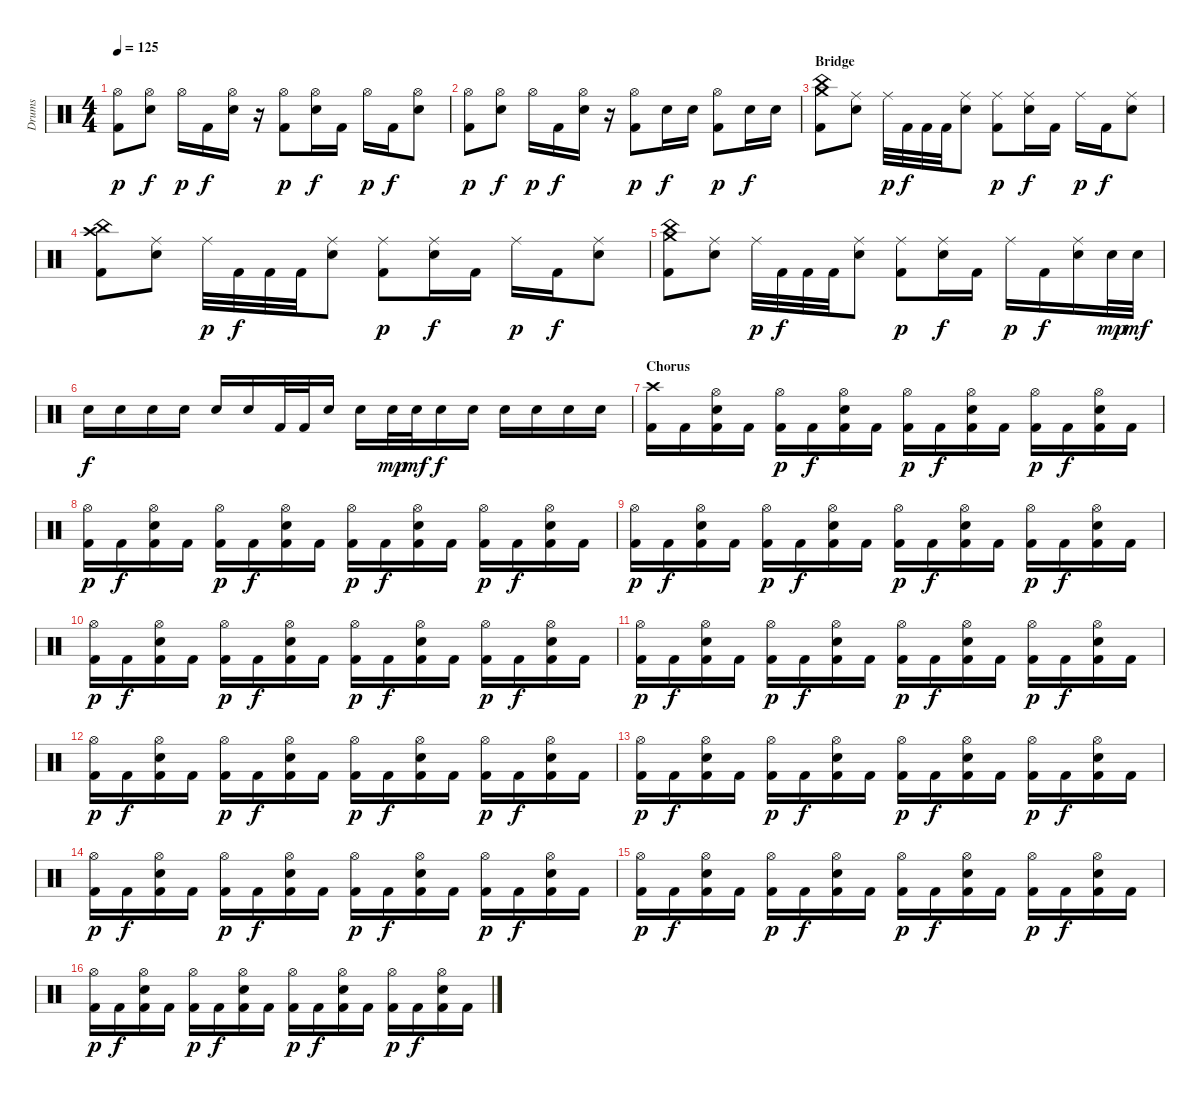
\track ("Drums" "Drums") {instrument percussion}
\staff {score}
\articulation defaults
\ts (4 4)
\tempo 125
\clef neutral
\ks c
("Hi-Hat (open)" "Kick (hit) 2").8{dy p} ("Hi-Hat (open)" "Snare (hit) 2").8{dy f} "Hi-Hat (open)".16{dy p} "Kick (hit) 2".16{dy f} ("Hi-Hat (open)" "Snare (hit) 2").16 r.16 ("Hi-Hat (open)" "Kick (hit) 2").8{dy p} ("Hi-Hat (open)" "Snare (hit) 2").16{dy f} "Kick (hit) 2".16 "Hi-Hat (open)".16{dy p} "Kick (hit) 2".16{dy f} ("Hi-Hat (open)" "Snare (hit) 2").8 |
("Hi-Hat (open)" "Kick (hit) 2").8{dy p} ("Hi-Hat (open)" "Snare (hit) 2").8{dy f} "Hi-Hat (open)".16{dy p} "Kick (hit) 2".16{dy f} ("Hi-Hat (open)" "Snare (hit) 2").16 r.16 ("Hi-Hat (open)" "Kick (hit) 2").8{dy p} "Snare (hit) 2".16{dy f} "Snare (hit) 2".16 ("Hi-Hat (open)" "Kick (hit) 2").8{dy p} "Snare (hit) 2".16{dy f} "Snare (hit) 2".16 |
\section ("" "Bridge")
("Crash medium (hit)" "China (hit)" "Kick (hit) 2").8 ("Ride (middle)" "Snare (hit) 2").8 "Ride (middle)".32{dy p} "Kick (hit) 2".32{dy f} "Kick (hit) 2".32 "Kick (hit) 2".32 ("Ride (middle)" "Snare (hit) 2").8 ("Ride (middle)" "Kick (hit) 2").8{dy p} ("Ride (middle)" "Snare (hit) 2").16{dy f} "Kick (hit) 2".16 "Ride (middle)".16{dy p} "Kick (hit) 2".16{dy f} ("Ride (middle)" "Snare (hit) 2").8 |
("Crash high (hit)" "China (hit)" "Kick (hit) 2").8 ("Ride (middle)" "Snare (hit) 2").8 "Ride (middle)".32{dy p} "Kick (hit) 2".32{dy f} "Kick (hit) 2".32 "Kick (hit) 2".32 ("Ride (middle)" "Snare (hit) 2").8 ("Ride (middle)" "Kick (hit) 2").8{dy p} ("Ride (middle)" "Snare (hit) 2").16{dy f} "Kick (hit) 2".16 "Ride (middle)".16{dy p} "Kick (hit) 2".16{dy f} ("Ride (middle)" "Snare (hit) 2").8 |
("Crash medium (hit)" "China (hit)" "Kick (hit) 2").8 ("Ride (middle)" "Snare (hit) 2").8 "Ride (middle)".32{dy p} "Kick (hit) 2".32{dy f} "Kick (hit) 2".32 "Kick (hit) 2".32 ("Ride (middle)" "Snare (hit) 2").8 ("Ride (middle)" "Kick (hit) 2").8{dy p} ("Ride (middle)" "Snare (hit) 2").16{dy f} "Kick (hit) 2".16 "Ride (middle)".16{dy p} "Kick (hit) 2".16{dy f} ("Ride (middle)" "Snare (hit) 2").16 "Snare (hit) 2".32{dy mp} "Snare (hit) 2".32{dy mf} |
"Snare (hit) 2".16{dy f} "Snare (hit) 2".16 "Snare (hit) 2".16 "Snare (hit) 2".16 "Snare (hit) 2".16 "Snare (hit) 2".16 "Kick (hit) 2".32 "Kick (hit) 2".32 "Snare (hit) 2".16 "Snare (hit) 2".16 "Snare (hit) 2".32{dy mp} "Snare (hit) 2".32{dy mf} "Snare (hit) 2".16{dy f} "Snare (hit) 2".16 "Snare (hit) 2".16 "Snare (hit) 2".16 "Snare (hit) 2".16 "Snare (hit) 2".16 |
\section ("" "Chorus")
("Crash high (hit)" "Kick (hit) 2").16 "Kick (hit) 2".16 ("Hi-Hat (open)" "Snare (hit) 2" "Kick (hit) 2").16 "Kick (hit) 2".16 ("Hi-Hat (open)" "Kick (hit) 2").16{dy p} "Kick (hit) 2".16{dy f} ("Hi-Hat (open)" "Snare (hit) 2" "Kick (hit) 2").16 "Kick (hit) 2".16 ("Hi-Hat (open)" "Kick (hit) 2").16{dy p} "Kick (hit) 2".16{dy f} ("Hi-Hat (open)" "Snare (hit) 2" "Kick (hit) 2").16 "Kick (hit) 2".16 ("Hi-Hat (open)" "Kick (hit) 2").16{dy p} "Kick (hit) 2".16{dy f} ("Hi-Hat (open)" "Snare (hit) 2" "Kick (hit) 2").16 "Kick (hit) 2".16 |
("Hi-Hat (open)" "Kick (hit) 2").16{dy p} "Kick (hit) 2".16{dy f} ("Hi-Hat (open)" "Snare (hit) 2" "Kick (hit) 2").16 "Kick (hit) 2".16 ("Hi-Hat (open)" "Kick (hit) 2").16{dy p} "Kick (hit) 2".16{dy f} ("Hi-Hat (open)" "Snare (hit) 2" "Kick (hit) 2").16 "Kick (hit) 2".16 ("Hi-Hat (open)" "Kick (hit) 2").16{dy p} "Kick (hit) 2".16{dy f} ("Hi-Hat (open)" "Snare (hit) 2" "Kick (hit) 2").16 "Kick (hit) 2".16 ("Hi-Hat (open)" "Kick (hit) 2").16{dy p} "Kick (hit) 2".16{dy f} ("Hi-Hat (open)" "Snare (hit) 2" "Kick (hit) 2").16 "Kick (hit) 2".16 |
("Hi-Hat (open)" "Kick (hit) 2").16{dy p} "Kick (hit) 2".16{dy f} ("Hi-Hat (open)" "Snare (hit) 2" "Kick (hit) 2").16 "Kick (hit) 2".16 ("Hi-Hat (open)" "Kick (hit) 2").16{dy p} "Kick (hit) 2".16{dy f} ("Hi-Hat (open)" "Snare (hit) 2" "Kick (hit) 2").16 "Kick (hit) 2".16 ("Hi-Hat (open)" "Kick (hit) 2").16{dy p} "Kick (hit) 2".16{dy f} ("Hi-Hat (open)" "Snare (hit) 2" "Kick (hit) 2").16 "Kick (hit) 2".16 ("Hi-Hat (open)" "Kick (hit) 2").16{dy p} "Kick (hit) 2".16{dy f} ("Hi-Hat (open)" "Snare (hit) 2" "Kick (hit) 2").16 "Kick (hit) 2".16 |
("Hi-Hat (open)" "Kick (hit) 2").16{dy p} "Kick (hit) 2".16{dy f} ("Hi-Hat (open)" "Snare (hit) 2" "Kick (hit) 2").16 "Kick (hit) 2".16 ("Hi-Hat (open)" "Kick (hit) 2").16{dy p} "Kick (hit) 2".16{dy f} ("Hi-Hat (open)" "Snare (hit) 2" "Kick (hit) 2").16 "Kick (hit) 2".16 ("Hi-Hat (open)" "Kick (hit) 2").16{dy p} "Kick (hit) 2".16{dy f} ("Hi-Hat (open)" "Snare (hit) 2" "Kick (hit) 2").16 "Kick (hit) 2".16 ("Hi-Hat (open)" "Kick (hit) 2").16{dy p} "Kick (hit) 2".16{dy f} ("Hi-Hat (open)" "Snare (hit) 2" "Kick (hit) 2").16 "Kick (hit) 2".16 |
("Hi-Hat (open)" "Kick (hit) 2").16{dy p} "Kick (hit) 2".16{dy f} ("Hi-Hat (open)" "Snare (hit) 2" "Kick (hit) 2").16 "Kick (hit) 2".16 ("Hi-Hat (open)" "Kick (hit) 2").16{dy p} "Kick (hit) 2".16{dy f} ("Hi-Hat (open)" "Snare (hit) 2" "Kick (hit) 2").16 "Kick (hit) 2".16 ("Hi-Hat (open)" "Kick (hit) 2").16{dy p} "Kick (hit) 2".16{dy f} ("Hi-Hat (open)" "Snare (hit) 2" "Kick (hit) 2").16 "Kick (hit) 2".16 ("Hi-Hat (open)" "Kick (hit) 2").16{dy p} "Kick (hit) 2".16{dy f} ("Hi-Hat (open)" "Snare (hit) 2" "Kick (hit) 2").16 "Kick (hit) 2".16 |
("Hi-Hat (open)" "Kick (hit) 2").16{dy p} "Kick (hit) 2".16{dy f} ("Hi-Hat (open)" "Snare (hit) 2" "Kick (hit) 2").16 "Kick (hit) 2".16 ("Hi-Hat (open)" "Kick (hit) 2").16{dy p} "Kick (hit) 2".16{dy f} ("Hi-Hat (open)" "Snare (hit) 2" "Kick (hit) 2").16 "Kick (hit) 2".16 ("Hi-Hat (open)" "Kick (hit) 2").16{dy p} "Kick (hit) 2".16{dy f} ("Hi-Hat (open)" "Snare (hit) 2" "Kick (hit) 2").16 "Kick (hit) 2".16 ("Hi-Hat (open)" "Kick (hit) 2").16{dy p} "Kick (hit) 2".16{dy f} ("Hi-Hat (open)" "Snare (hit) 2" "Kick (hit) 2").16 "Kick (hit) 2".16 |
("Hi-Hat (open)" "Kick (hit) 2").16{dy p} "Kick (hit) 2".16{dy f} ("Hi-Hat (open)" "Snare (hit) 2" "Kick (hit) 2").16 "Kick (hit) 2".16 ("Hi-Hat (open)" "Kick (hit) 2").16{dy p} "Kick (hit) 2".16{dy f} ("Hi-Hat (open)" "Snare (hit) 2" "Kick (hit) 2").16 "Kick (hit) 2".16 ("Hi-Hat (open)" "Kick (hit) 2").16{dy p} "Kick (hit) 2".16{dy f} ("Hi-Hat (open)" "Snare (hit) 2" "Kick (hit) 2").16 "Kick (hit) 2".16 ("Hi-Hat (open)" "Kick (hit) 2").16{dy p} "Kick (hit) 2".16{dy f} ("Hi-Hat (open)" "Snare (hit) 2" "Kick (hit) 2").16 "Kick (hit) 2".16 |
("Hi-Hat (open)" "Kick (hit) 2").16{dy p} "Kick (hit) 2".16{dy f} ("Hi-Hat (open)" "Snare (hit) 2" "Kick (hit) 2").16 "Kick (hit) 2".16 ("Hi-Hat (open)" "Kick (hit) 2").16{dy p} "Kick (hit) 2".16{dy f} ("Hi-Hat (open)" "Snare (hit) 2" "Kick (hit) 2").16 "Kick (hit) 2".16 ("Hi-Hat (open)" "Kick (hit) 2").16{dy p} "Kick (hit) 2".16{dy f} ("Hi-Hat (open)" "Snare (hit) 2" "Kick (hit) 2").16 "Kick (hit) 2".16 ("Hi-Hat (open)" "Kick (hit) 2").16{dy p} "Kick (hit) 2".16{dy f} ("Hi-Hat (open)" "Snare (hit) 2" "Kick (hit) 2").16 "Kick (hit) 2".16 |
("Hi-Hat (open)" "Kick (hit) 2").16{dy p} "Kick (hit) 2".16{dy f} ("Hi-Hat (open)" "Snare (hit) 2" "Kick (hit) 2").16 "Kick (hit) 2".16 ("Hi-Hat (open)" "Kick (hit) 2").16{dy p} "Kick (hit) 2".16{dy f} ("Hi-Hat (open)" "Snare (hit) 2" "Kick (hit) 2").16 "Kick (hit) 2".16 ("Hi-Hat (open)" "Kick (hit) 2").16{dy p} "Kick (hit) 2".16{dy f} ("Hi-Hat (open)" "Snare (hit) 2" "Kick (hit) 2").16 "Kick (hit) 2".16 ("Hi-Hat (open)" "Kick (hit) 2").16{dy p} "Kick (hit) 2".16{dy f} ("Hi-Hat (open)" "Snare (hit) 2" "Kick (hit) 2").16 "Kick (hit) 2".16 |
("Hi-Hat (open)" "Kick (hit) 2").16{dy p} "Kick (hit) 2".16{dy f} ("Hi-Hat (open)" "Snare (hit) 2" "Kick (hit) 2").16 "Kick (hit) 2".16 ("Hi-Hat (open)" "Kick (hit) 2").16{dy p} "Kick (hit) 2".16{dy f} ("Hi-Hat (open)" "Snare (hit) 2" "Kick (hit) 2").16 "Kick (hit) 2".16 ("Hi-Hat (open)" "Kick (hit) 2").16{dy p} "Kick (hit) 2".16{dy f} ("Hi-Hat (open)" "Snare (hit) 2" "Kick (hit) 2").16 "Kick (hit) 2".16 ("Hi-Hat (open)" "Kick (hit) 2").16{dy p} "Kick (hit) 2".16{dy f} ("Hi-Hat (open)" "Snare (hit) 2" "Kick (hit) 2").16 "Kick (hit) 2".16
